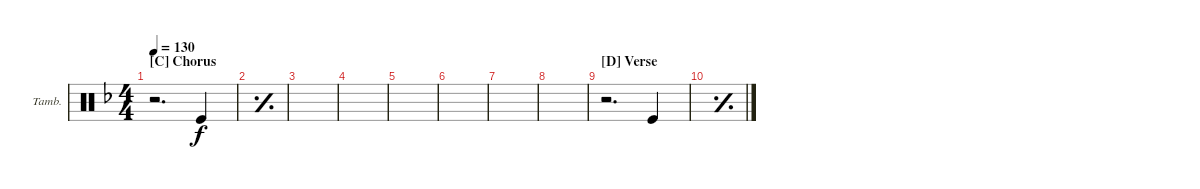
\defaultSystemsLayout 4
\bracketExtendMode groupsimilarinstruments
\firstSystemTrackNameOrientation horizontal
\otherSystemsTrackNameOrientation horizontal
\track ("Tambourine" "Tamb.") {instrument percussion}
\staff {score}
\articulation defaults
\ts (4 4)
\section ("C" "Chorus")
\tempo 130
\clef neutral
\ks f
r.2{d dy f} "Kick (hit)".4 |
\simile simple
|
|
|
|
|
|
|
\section ("D" "Verse")
\simile none
r.2{d} "Kick (hit)".4 |
\simile simple
